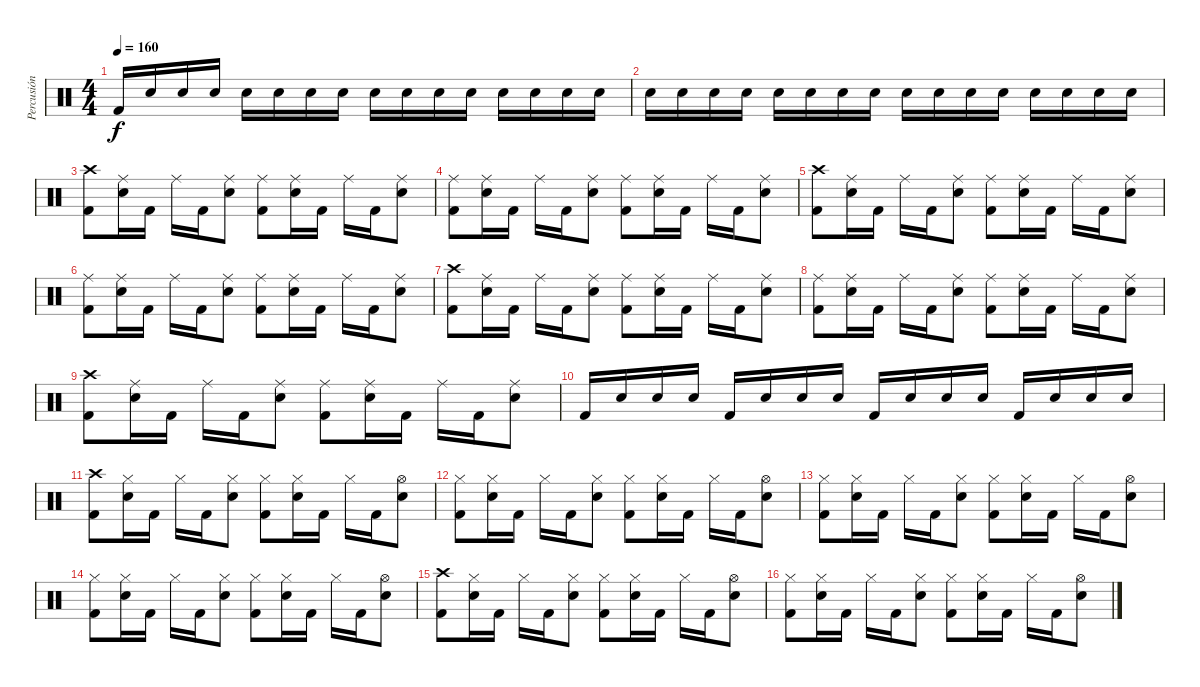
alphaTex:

\track ("Percusión" "Percusión") {instrument percussion}
\staff {score}
\articulation defaults
\ts (4 4)
\tempo 160
\clef neutral
\ks c "Kick (hit) 2".16{dy f} "Electric Snare (hit)".16 "Electric Snare (hit)".16 "Electric Snare (hit)".16 "Electric Snare (hit)".16 "Electric Snare (hit)".16 "Electric Snare (hit)".16 "Electric Snare (hit)".16 "Electric Snare (hit)".16 "Electric Snare (hit)".16 "Electric Snare (hit)".16 "Electric Snare (hit)".16 "Electric Snare (hit)".16 "Electric Snare (hit)".16 "Electric Snare (hit)".16 "Electric Snare (hit)".16
|
"Electric Snare (hit)".16 "Electric Snare (hit)".16 "Electric Snare (hit)".16 "Electric Snare (hit)".16 "Electric Snare (hit)".16 "Electric Snare (hit)".16 "Electric Snare (hit)".16 "Electric Snare (hit)".16 "Electric Snare (hit)".16 "Electric Snare (hit)".16 "Electric Snare (hit)".16 "Electric Snare (hit)".16 "Electric Snare (hit)".16 "Electric Snare (hit)".16 "Electric Snare (hit)".16 "Electric Snare (hit)".16 |
("Crash high (hit)" "Kick (hit) 2").8 ("Ride (middle)" "Electric Snare (hit)").16 "Kick (hit) 2".16 "Ride (middle)".16 "Kick (hit) 2".16 ("Ride (middle)" "Electric Snare (hit)").8 ("Ride (middle)" "Kick (hit) 2").8 ("Ride (middle)" "Electric Snare (hit)").16 "Kick (hit) 2".16 "Ride (middle)".16 "Kick (hit) 2".16 ("Ride (middle)" "Electric Snare (hit)").8 |
("Ride (middle)" "Kick (hit) 2").8 ("Ride (middle)" "Electric Snare (hit)").16 "Kick (hit) 2".16 "Ride (middle)".16 "Kick (hit) 2".16 ("Ride (middle)" "Electric Snare (hit)").8 ("Ride (middle)" "Kick (hit) 2").8 ("Ride (middle)" "Electric Snare (hit)").16 "Kick (hit) 2".16 "Ride (middle)".16 "Kick (hit) 2".16 ("Ride (middle)" "Electric Snare (hit)").8 |
("Crash high (hit)" "Kick (hit) 2").8 ("Ride (middle)" "Electric Snare (hit)").16 "Kick (hit) 2".16 "Ride (middle)".16 "Kick (hit) 2".16 ("Ride (middle)" "Electric Snare (hit)").8 ("Ride (middle)" "Kick (hit) 2").8 ("Ride (middle)" "Electric Snare (hit)").16 "Kick (hit) 2".16 "Ride (middle)".16 "Kick (hit) 2".16 ("Ride (middle)" "Electric Snare (hit)").8 |
("Ride (middle)" "Kick (hit) 2").8 ("Ride (middle)" "Electric Snare (hit)").16 "Kick (hit) 2".16 "Ride (middle)".16 "Kick (hit) 2".16 ("Ride (middle)" "Electric Snare (hit)").8 ("Ride (middle)" "Kick (hit) 2").8 ("Ride (middle)" "Electric Snare (hit)").16 "Kick (hit) 2".16 "Ride (middle)".16 "Kick (hit) 2".16 ("Ride (middle)" "Electric Snare (hit)").8 |
("Crash high (hit)" "Kick (hit) 2").8 ("Ride (middle)" "Electric Snare (hit)").16 "Kick (hit) 2".16 "Ride (middle)".16 "Kick (hit) 2".16 ("Ride (middle)" "Electric Snare (hit)").8 ("Ride (middle)" "Kick (hit) 2").8 ("Ride (middle)" "Electric Snare (hit)").16 "Kick (hit) 2".16 "Ride (middle)".16 "Kick (hit) 2".16 ("Ride (middle)" "Electric Snare (hit)").8 |
("Ride (middle)" "Kick (hit) 2").8 ("Ride (middle)" "Electric Snare (hit)").16 "Kick (hit) 2".16 "Ride (middle)".16 "Kick (hit) 2".16 ("Ride (middle)" "Electric Snare (hit)").8 ("Ride (middle)" "Kick (hit) 2").8 ("Ride (middle)" "Electric Snare (hit)").16 "Kick (hit) 2".16 "Ride (middle)".16 "Kick (hit) 2".16 ("Ride (middle)" "Electric Snare (hit)").8 |
("Crash high (hit)" "Kick (hit) 2").8 ("Ride (middle)" "Electric Snare (hit)").16 "Kick (hit) 2".16 "Ride (middle)".16 "Kick (hit) 2".16 ("Ride (middle)" "Electric Snare (hit)").8 ("Ride (middle)" "Kick (hit) 2").8 ("Ride (middle)" "Electric Snare (hit)").16 "Kick (hit) 2".16 "Ride (middle)".16 "Kick (hit) 2".16 ("Ride (middle)" "Electric Snare (hit)").8 |
"Kick (hit) 2".16 "Electric Snare (hit)".16 "Electric Snare (hit)".16 "Electric Snare (hit)".16 "Kick (hit) 2".16 "Electric Snare (hit)".16 "Electric Snare (hit)".16 "Electric Snare (hit)".16 "Kick (hit) 2".16 "Electric Snare (hit)".16 "Electric Snare (hit)".16 "Electric Snare (hit)".16 "Kick (hit) 2".16 "Electric Snare (hit)".16 "Electric Snare (hit)".16 "Electric Snare (hit)".16 |
("Crash high (hit)" "Kick (hit) 2").8 ("Hi-Hat (closed)" "Electric Snare (hit)").16 "Kick (hit) 2".16 "Hi-Hat (closed)".16 "Kick (hit) 2".16 ("Hi-Hat (closed)" "Electric Snare (hit)").8 ("Hi-Hat (closed)" "Kick (hit) 2").8 ("Hi-Hat (closed)" "Electric Snare (hit)").16 "Kick (hit) 2".16 "Hi-Hat (closed)".16 "Kick (hit) 2".16 ("Hi-Hat (open)" "Electric Snare (hit)").8 |
("Hi-Hat (closed)" "Kick (hit) 2").8 ("Hi-Hat (closed)" "Electric Snare (hit)").16 "Kick (hit) 2".16 "Hi-Hat (closed)".16 "Kick (hit) 2".16 ("Hi-Hat (closed)" "Electric Snare (hit)").8 ("Hi-Hat (closed)" "Kick (hit) 2").8 ("Hi-Hat (closed)" "Electric Snare (hit)").16 "Kick (hit) 2".16 "Hi-Hat (closed)".16 "Kick (hit) 2".16 ("Hi-Hat (open)" "Electric Snare (hit)").8 |
("Hi-Hat (closed)" "Kick (hit) 2").8 ("Hi-Hat (closed)" "Electric Snare (hit)").16 "Kick (hit) 2".16 "Hi-Hat (closed)".16 "Kick (hit) 2".16 ("Hi-Hat (closed)" "Electric Snare (hit)").8 ("Hi-Hat (closed)" "Kick (hit) 2").8 ("Hi-Hat (closed)" "Electric Snare (hit)").16 "Kick (hit) 2".16 "Hi-Hat (closed)".16 "Kick (hit) 2".16 ("Hi-Hat (open)" "Electric Snare (hit)").8 |
("Hi-Hat (closed)" "Kick (hit) 2").8 ("Hi-Hat (closed)" "Electric Snare (hit)").16 "Kick (hit) 2".16 "Hi-Hat (closed)".16 "Kick (hit) 2".16 ("Hi-Hat (closed)" "Electric Snare (hit)").8 ("Hi-Hat (closed)" "Kick (hit) 2").8 ("Hi-Hat (closed)" "Electric Snare (hit)").16 "Kick (hit) 2".16 "Hi-Hat (closed)".16 "Kick (hit) 2".16 ("Hi-Hat (open)" "Electric Snare (hit)").8 |
("Crash high (hit)" "Kick (hit) 2").8 ("Hi-Hat (closed)" "Electric Snare (hit)").16 "Kick (hit) 2".16 "Hi-Hat (closed)".16 "Kick (hit) 2".16 ("Hi-Hat (closed)" "Electric Snare (hit)").8 ("Hi-Hat (closed)" "Kick (hit) 2").8 ("Hi-Hat (closed)" "Electric Snare (hit)").16 "Kick (hit) 2".16 "Hi-Hat (closed)".16 "Kick (hit) 2".16 ("Hi-Hat (open)" "Electric Snare (hit)").8 |
("Hi-Hat (closed)" "Kick (hit) 2").8 ("Hi-Hat (closed)" "Electric Snare (hit)").16 "Kick (hit) 2".16 "Hi-Hat (closed)".16 "Kick (hit) 2".16 ("Hi-Hat (closed)" "Electric Snare (hit)").8 ("Hi-Hat (closed)" "Kick (hit) 2").8 ("Hi-Hat (closed)" "Electric Snare (hit)").16 "Kick (hit) 2".16 "Hi-Hat (closed)".16 "Kick (hit) 2".16 ("Hi-Hat (open)" "Electric Snare (hit)").8
